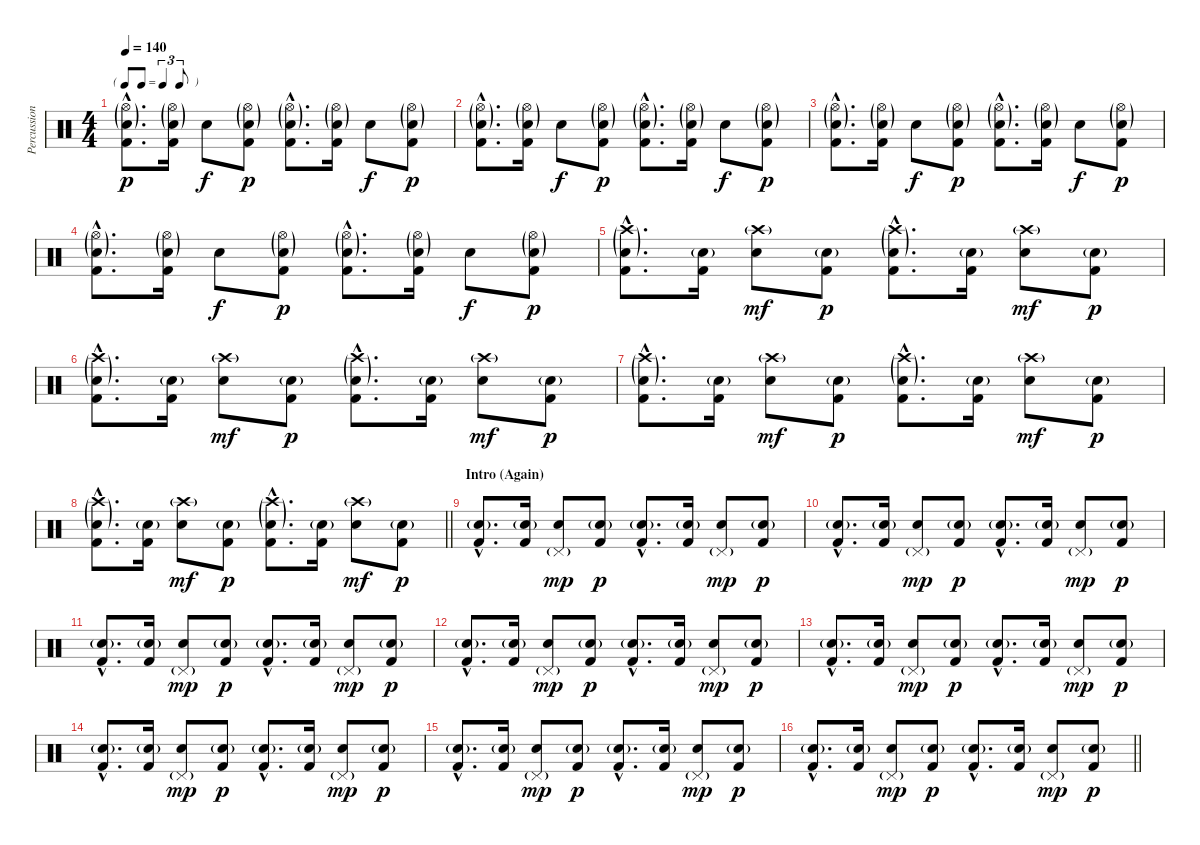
\track ("Percussion" "Percussion") {instrument percussion}
\staff {score}
\articulation defaults
\ts (4 4)
\tf triplet8th
\tempo 140
\clef neutral
\ks c
("Hi-Hat (open)"{g hac} "Snare (hit) 2"{g hac} "Kick (hit) 2"{hac}).8{d dy p} ("Hi-Hat (open)"{g} "Snare (hit) 2"{g} "Kick (hit) 2").16 "Snare (hit) 2".8{dy f} ("Hi-Hat (open)"{g} "Snare (hit) 2"{g} "Kick (hit) 2").8{dy p} ("Hi-Hat (open)"{g hac} "Snare (hit) 2"{g hac} "Kick (hit) 2"{hac}).8{d} ("Hi-Hat (open)"{g} "Snare (hit) 2"{g} "Kick (hit) 2").16 "Snare (hit) 2".8{dy f} ("Hi-Hat (open)"{g} "Snare (hit) 2"{g} "Kick (hit) 2").8{dy p} |
("Hi-Hat (open)"{g hac} "Snare (hit) 2"{g hac} "Kick (hit) 2"{hac}).8{d} ("Hi-Hat (open)"{g} "Snare (hit) 2"{g} "Kick (hit) 2").16 "Snare (hit) 2".8{dy f} ("Hi-Hat (open)"{g} "Snare (hit) 2"{g} "Kick (hit) 2").8{dy p} ("Hi-Hat (open)"{g hac} "Snare (hit) 2"{g hac} "Kick (hit) 2"{hac}).8{d} ("Hi-Hat (open)"{g} "Snare (hit) 2"{g} "Kick (hit) 2").16 "Snare (hit) 2".8{dy f} ("Hi-Hat (open)"{g} "Snare (hit) 2"{g} "Kick (hit) 2").8{dy p} |
("Hi-Hat (open)"{g hac} "Snare (hit) 2"{g hac} "Kick (hit) 2"{hac}).8{d} ("Hi-Hat (open)"{g} "Snare (hit) 2"{g} "Kick (hit) 2").16 "Snare (hit) 2".8{dy f} ("Hi-Hat (open)"{g} "Snare (hit) 2"{g} "Kick (hit) 2").8{dy p} ("Hi-Hat (open)"{g hac} "Snare (hit) 2"{g hac} "Kick (hit) 2"{hac}).8{d} ("Hi-Hat (open)"{g} "Snare (hit) 2"{g} "Kick (hit) 2").16 "Snare (hit) 2".8{dy f} ("Hi-Hat (open)"{g} "Snare (hit) 2"{g} "Kick (hit) 2").8{dy p} |
("Hi-Hat (open)"{g hac} "Snare (hit) 2"{g hac} "Kick (hit) 2"{hac}).8{d} ("Hi-Hat (open)"{g} "Snare (hit) 2"{g} "Kick (hit) 2").16 "Snare (hit) 2".8{dy f} ("Hi-Hat (open)"{g} "Snare (hit) 2"{g} "Kick (hit) 2").8{dy p} ("Hi-Hat (open)"{g hac} "Snare (hit) 2"{g hac} "Kick (hit) 2"{hac}).8{d} ("Hi-Hat (open)"{g} "Snare (hit) 2"{g} "Kick (hit) 2").16 "Snare (hit) 2".8{dy f} ("Hi-Hat (open)"{g} "Snare (hit) 2"{g} "Kick (hit) 2").8{dy p} |
("Crash high (hit)"{g hac} "Snare (hit) 2"{g hac} "Kick (hit) 2"{hac}).8{d} ("Snare (hit) 2"{g} "Kick (hit) 2").16 ("Crash high (hit)"{g} "Snare (hit) 2").8{dy mf} ("Snare (hit) 2"{g} "Kick (hit) 2").8{dy p} ("Crash high (hit)"{g hac} "Snare (hit) 2"{g hac} "Kick (hit) 2"{hac}).8{d} ("Snare (hit) 2"{g} "Kick (hit) 2").16 ("Crash high (hit)"{g} "Snare (hit) 2").8{dy mf} ("Snare (hit) 2"{g} "Kick (hit) 2").8{dy p} |
("Crash high (hit)"{g hac} "Snare (hit) 2"{g hac} "Kick (hit) 2"{hac}).8{d} ("Snare (hit) 2"{g} "Kick (hit) 2").16 ("Crash high (hit)"{g} "Snare (hit) 2").8{dy mf} ("Snare (hit) 2"{g} "Kick (hit) 2").8{dy p} ("Crash high (hit)"{g hac} "Snare (hit) 2"{g hac} "Kick (hit) 2"{hac}).8{d} ("Snare (hit) 2"{g} "Kick (hit) 2").16 ("Crash high (hit)"{g} "Snare (hit) 2").8{dy mf} ("Snare (hit) 2"{g} "Kick (hit) 2").8{dy p} |
("Crash high (hit)"{g hac} "Snare (hit) 2"{g hac} "Kick (hit) 2"{hac}).8{d} ("Snare (hit) 2"{g} "Kick (hit) 2").16 ("Crash high (hit)"{g} "Snare (hit) 2").8{dy mf} ("Snare (hit) 2"{g} "Kick (hit) 2").8{dy p} ("Crash high (hit)"{g hac} "Snare (hit) 2"{g hac} "Kick (hit) 2"{hac}).8{d} ("Snare (hit) 2"{g} "Kick (hit) 2").16 ("Crash high (hit)"{g} "Snare (hit) 2").8{dy mf} ("Snare (hit) 2"{g} "Kick (hit) 2").8{dy p} |
\barLineRight lightlight
("Crash high (hit)"{g hac} "Snare (hit) 2"{g hac} "Kick (hit) 2"{hac}).8{d} ("Snare (hit) 2"{g} "Kick (hit) 2").16 ("Crash high (hit)"{g} "Snare (hit) 2").8{dy mf} ("Snare (hit) 2"{g} "Kick (hit) 2").8{dy p} ("Crash high (hit)"{g hac} "Snare (hit) 2"{g hac} "Kick (hit) 2"{hac}).8{d} ("Snare (hit) 2"{g} "Kick (hit) 2").16 ("Crash high (hit)"{g} "Snare (hit) 2").8{dy mf} ("Snare (hit) 2"{g} "Kick (hit) 2").8{dy p} |
\section ("" "Intro (Again)")
("Snare (hit) 2"{g hac} "Kick (hit) 2"{hac}).8{d} ("Snare (hit) 2"{g} "Kick (hit) 2").16 ("Pedal Hi-Hat (hit)"{g} "Snare (hit) 2").8{dy mp} ("Snare (hit) 2"{g} "Kick (hit) 2").8{dy p} ("Snare (hit) 2"{g hac} "Kick (hit) 2"{hac}).8{d} ("Snare (hit) 2"{g} "Kick (hit) 2").16 ("Pedal Hi-Hat (hit)"{g} "Snare (hit) 2").8{dy mp} ("Snare (hit) 2"{g} "Kick (hit) 2").8{dy p} |
("Snare (hit) 2"{g hac} "Kick (hit) 2"{hac}).8{d} ("Snare (hit) 2"{g} "Kick (hit) 2").16 ("Pedal Hi-Hat (hit)"{g} "Snare (hit) 2").8{dy mp} ("Snare (hit) 2"{g} "Kick (hit) 2").8{dy p} ("Snare (hit) 2"{g hac} "Kick (hit) 2"{hac}).8{d} ("Snare (hit) 2"{g} "Kick (hit) 2").16 ("Pedal Hi-Hat (hit)"{g} "Snare (hit) 2").8{dy mp} ("Snare (hit) 2"{g} "Kick (hit) 2").8{dy p} |
("Snare (hit) 2"{g hac} "Kick (hit) 2"{hac}).8{d} ("Snare (hit) 2"{g} "Kick (hit) 2").16 ("Pedal Hi-Hat (hit)"{g} "Snare (hit) 2").8{dy mp} ("Snare (hit) 2"{g} "Kick (hit) 2").8{dy p} ("Snare (hit) 2"{g hac} "Kick (hit) 2"{hac}).8{d} ("Snare (hit) 2"{g} "Kick (hit) 2").16 ("Pedal Hi-Hat (hit)"{g} "Snare (hit) 2").8{dy mp} ("Snare (hit) 2"{g} "Kick (hit) 2").8{dy p} |
("Snare (hit) 2"{g hac} "Kick (hit) 2"{hac}).8{d} ("Snare (hit) 2"{g} "Kick (hit) 2").16 ("Pedal Hi-Hat (hit)"{g} "Snare (hit) 2").8{dy mp} ("Snare (hit) 2"{g} "Kick (hit) 2").8{dy p} ("Snare (hit) 2"{g hac} "Kick (hit) 2"{hac}).8{d} ("Snare (hit) 2"{g} "Kick (hit) 2").16 ("Pedal Hi-Hat (hit)"{g} "Snare (hit) 2").8{dy mp} ("Snare (hit) 2"{g} "Kick (hit) 2").8{dy p} |
("Snare (hit) 2"{g hac} "Kick (hit) 2"{hac}).8{d} ("Snare (hit) 2"{g} "Kick (hit) 2").16 ("Pedal Hi-Hat (hit)"{g} "Snare (hit) 2").8{dy mp} ("Snare (hit) 2"{g} "Kick (hit) 2").8{dy p} ("Snare (hit) 2"{g hac} "Kick (hit) 2"{hac}).8{d} ("Snare (hit) 2"{g} "Kick (hit) 2").16 ("Pedal Hi-Hat (hit)"{g} "Snare (hit) 2").8{dy mp} ("Snare (hit) 2"{g} "Kick (hit) 2").8{dy p} |
("Snare (hit) 2"{g hac} "Kick (hit) 2"{hac}).8{d} ("Snare (hit) 2"{g} "Kick (hit) 2").16 ("Pedal Hi-Hat (hit)"{g} "Snare (hit) 2").8{dy mp} ("Snare (hit) 2"{g} "Kick (hit) 2").8{dy p} ("Snare (hit) 2"{g hac} "Kick (hit) 2"{hac}).8{d} ("Snare (hit) 2"{g} "Kick (hit) 2").16 ("Pedal Hi-Hat (hit)"{g} "Snare (hit) 2").8{dy mp} ("Snare (hit) 2"{g} "Kick (hit) 2").8{dy p} |
("Snare (hit) 2"{g hac} "Kick (hit) 2"{hac}).8{d} ("Snare (hit) 2"{g} "Kick (hit) 2").16 ("Pedal Hi-Hat (hit)"{g} "Snare (hit) 2").8{dy mp} ("Snare (hit) 2"{g} "Kick (hit) 2").8{dy p} ("Snare (hit) 2"{g hac} "Kick (hit) 2"{hac}).8{d} ("Snare (hit) 2"{g} "Kick (hit) 2").16 ("Pedal Hi-Hat (hit)"{g} "Snare (hit) 2").8{dy mp} ("Snare (hit) 2"{g} "Kick (hit) 2").8{dy p} |
\barLineRight lightlight
("Snare (hit) 2"{g hac} "Kick (hit) 2"{hac}).8{d} ("Snare (hit) 2"{g} "Kick (hit) 2").16 ("Pedal Hi-Hat (hit)"{g} "Snare (hit) 2").8{dy mp} ("Snare (hit) 2"{g} "Kick (hit) 2").8{dy p} ("Snare (hit) 2"{g hac} "Kick (hit) 2"{hac}).8{d} ("Snare (hit) 2"{g} "Kick (hit) 2").16 ("Pedal Hi-Hat (hit)"{g} "Snare (hit) 2").8{dy mp} ("Snare (hit) 2"{g} "Kick (hit) 2").8{dy p}
